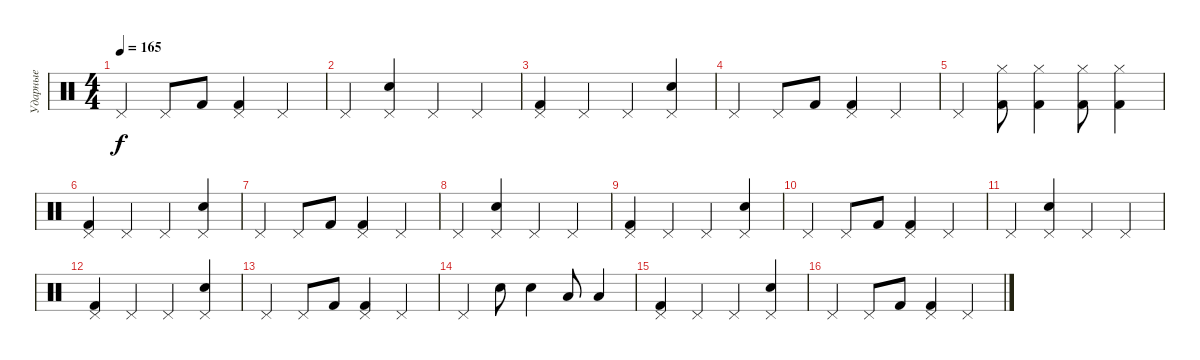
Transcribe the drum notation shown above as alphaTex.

\track ("Ударные" "Ударные") {instrument percussion}
\staff {score}
\articulation defaults
\ts (4 4)
\tempo 165
\clef neutral
\ks c "Pedal Hi-Hat (hit)".4{dy f} "Pedal Hi-Hat (hit)".8 "Kick (hit) 2".8
("Pedal Hi-Hat (hit)" "Kick (hit) 2").4 "Pedal Hi-Hat (hit)".4 |
"Pedal Hi-Hat (hit)".4 ("Pedal Hi-Hat (hit)" "Snare (hit) 2").4 "Pedal Hi-Hat (hit)".4 "Pedal Hi-Hat (hit)".4 |
("Pedal Hi-Hat (hit)" "Kick (hit) 2").4 "Pedal Hi-Hat (hit)".4 "Pedal Hi-Hat (hit)".4 ("Pedal Hi-Hat (hit)" "Snare (hit) 2").4 |
"Pedal Hi-Hat (hit)".4 "Pedal Hi-Hat (hit)".8 "Kick (hit) 2".8 ("Pedal Hi-Hat (hit)" "Kick (hit) 2").4 "Pedal Hi-Hat (hit)".4 |
"Pedal Hi-Hat (hit)".4 ("Hi-Hat (closed)" "Kick (hit) 2").8 ("Hi-Hat (closed)" "Kick (hit) 2").4 ("Hi-Hat (closed)" "Kick (hit) 2").8 ("Hi-Hat (closed)" "Kick (hit) 2").4 |
("Pedal Hi-Hat (hit)" "Kick (hit) 2").4 "Pedal Hi-Hat (hit)".4 "Pedal Hi-Hat (hit)".4 ("Pedal Hi-Hat (hit)" "Snare (hit) 2").4 |
"Pedal Hi-Hat (hit)".4 "Pedal Hi-Hat (hit)".8 "Kick (hit) 2".8 ("Pedal Hi-Hat (hit)" "Kick (hit) 2").4 "Pedal Hi-Hat (hit)".4 |
"Pedal Hi-Hat (hit)".4 ("Pedal Hi-Hat (hit)" "Snare (hit) 2").4 "Pedal Hi-Hat (hit)".4 "Pedal Hi-Hat (hit)".4 |
("Pedal Hi-Hat (hit)" "Kick (hit) 2").4 "Pedal Hi-Hat (hit)".4 "Pedal Hi-Hat (hit)".4 ("Pedal Hi-Hat (hit)" "Snare (hit) 2").4 |
"Pedal Hi-Hat (hit)".4 "Pedal Hi-Hat (hit)".8 "Kick (hit) 2".8 ("Pedal Hi-Hat (hit)" "Kick (hit) 2").4 "Pedal Hi-Hat (hit)".4 |
"Pedal Hi-Hat (hit)".4 ("Pedal Hi-Hat (hit)" "Snare (hit) 2").4 "Pedal Hi-Hat (hit)".4 "Pedal Hi-Hat (hit)".4 |
("Pedal Hi-Hat (hit)" "Kick (hit) 2").4 "Pedal Hi-Hat (hit)".4 "Pedal Hi-Hat (hit)".4 ("Pedal Hi-Hat (hit)" "Snare (hit) 2").4 |
"Pedal Hi-Hat (hit)".4 "Pedal Hi-Hat (hit)".8 "Kick (hit) 2".8 ("Pedal Hi-Hat (hit)" "Kick (hit) 2").4 "Pedal Hi-Hat (hit)".4 |
"Pedal Hi-Hat (hit)".4 "Snare (hit) 2".8 "Snare (hit) 2".4 "Low Tom (hit)".8 "Low Tom (hit)".4 |
("Pedal Hi-Hat (hit)" "Kick (hit) 2").4 "Pedal Hi-Hat (hit)".4 "Pedal Hi-Hat (hit)".4 ("Pedal Hi-Hat (hit)" "Snare (hit) 2").4 |
"Pedal Hi-Hat (hit)".4 "Pedal Hi-Hat (hit)".8 "Kick (hit) 2".8 ("Pedal Hi-Hat (hit)" "Kick (hit) 2").4 "Pedal Hi-Hat (hit)".4
